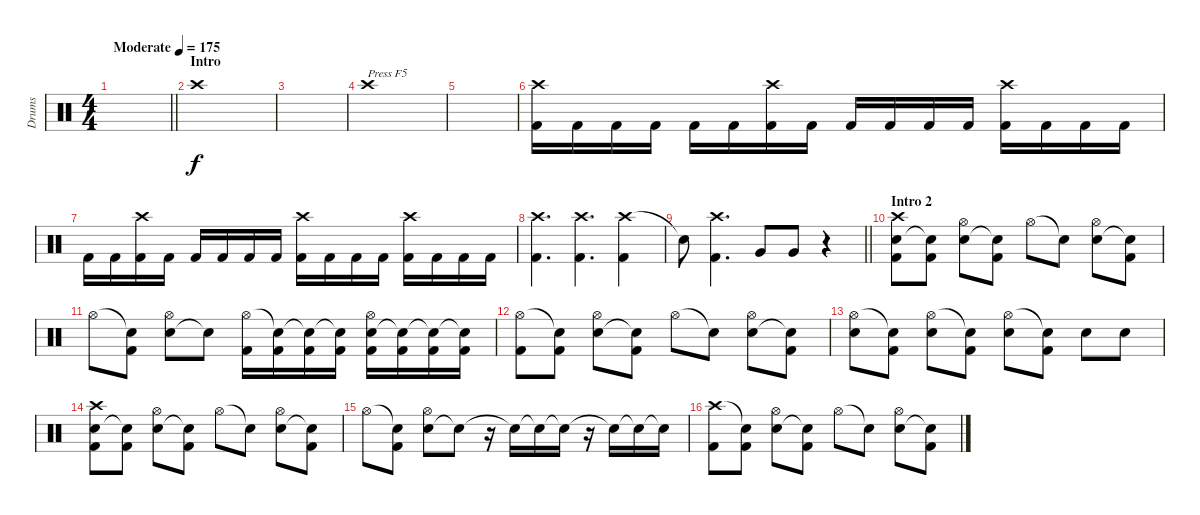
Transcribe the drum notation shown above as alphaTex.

\track ("Drums" "Drums") {instrument percussion}
\staff {score}
\articulation defaults
\ts (4 4)
\tempo (175 "Moderate")
\clef neutral
\barLineRight lightlight
\ks c
|
\section ("" "Intro")
"Crash high (hit)".1 |
|
"Crash high (hit)".1{txt "Press F5"} |
|
("Crash high (hit)" "Kick (hit) 2").16 "Kick (hit) 2".16 "Kick (hit) 2".16 "Kick (hit) 2".16 "Kick (hit) 2".16 "Kick (hit) 2".16 ("Crash high (hit)" "Kick (hit) 2").16 "Kick (hit) 2".16 "Kick (hit) 2".16 "Kick (hit) 2".16 "Kick (hit) 2".16 "Kick (hit) 2".16 ("Crash high (hit)" "Kick (hit) 2").16 "Kick (hit) 2".16 "Kick (hit) 2".16 "Kick (hit) 2".16 |
"Kick (hit) 2".16 "Kick (hit) 2".16 ("Crash high (hit)" "Kick (hit) 2").16 "Kick (hit) 2".16 "Kick (hit) 2".16 "Kick (hit) 2".16 "Kick (hit) 2".16 "Kick (hit) 2".16 ("Crash high (hit)" "Kick (hit) 2").16 "Kick (hit) 2".16 "Kick (hit) 2".16 "Kick (hit) 2".16 ("Crash high (hit)" "Kick (hit) 2").16 "Kick (hit) 2".16 "Kick (hit) 2".16 "Kick (hit) 2".16 |
("Crash high (hit)" "Kick (hit) 2").4{d} ("Crash high (hit)" "Kick (hit) 2").4{d} ("Crash high (hit)" "Kick (hit) 2").4 |
\barLineRight lightlight "Snare (hit)"{t}.8
("Crash high (hit)" "Kick (hit) 2").4{d} "Very Low Tom (hit)".8 "Very Low Tom (hit)".8 r.4 |
\section ("" "Intro 2")
("Snare (hit) 2" "Crash high (hit)" "Kick (hit) 2").8 ("Snare (hit)"{t} "Kick (hit) 2").8 ("Snare (hit) 2" "Hi-Hat (open)").8 ("Snare (hit)"{t} "Kick (hit) 2").8 "Hi-Hat (open)".8 "Snare (hit)"{t}.8 ("Snare (hit) 2" "Hi-Hat (open)").8 ("Snare (hit)"{t} "Kick (hit) 2").8 |
"Hi-Hat (open)".8 ("Snare (hit)"{t} "Kick (hit) 2").8 ("Snare (hit) 2" "Hi-Hat (open)").8 "Snare (hit)"{t}.8 ("Hi-Hat (open)" "Kick (hit) 2").16 ("Snare (hit)"{t} "Kick (hit) 2").16 ("Snare (hit)"{t} "Kick (hit) 2").16 ("Snare (hit)"{t} "Kick (hit) 2").16 ("Snare (hit) 2" "Hi-Hat (open)" "Kick (hit) 2").16 ("Snare (hit)"{t} "Kick (hit) 2").16 ("Snare (hit)"{t} "Kick (hit) 2").16 ("Snare (hit)"{t} "Kick (hit) 2").16 |
("Hi-Hat (open)" "Kick (hit) 2").8 ("Snare (hit)"{t} "Kick (hit) 2").8 ("Snare (hit) 2" "Hi-Hat (open)").8 ("Snare (hit)"{t} "Kick (hit) 2").8 "Hi-Hat (open)".8 "Snare (hit)"{t}.8 ("Snare (hit) 2" "Hi-Hat (open)").8 ("Snare (hit)"{t} "Kick (hit) 2").8 |
("Hi-Hat (open)" "Snare (hit) 2").8 ("Snare (hit)"{t} "Kick (hit) 2").8 ("Hi-Hat (open)" "Snare (hit) 2").8 ("Snare (hit)"{t} "Kick (hit) 2").8 ("Hi-Hat (open)" "Snare (hit) 2").8 ("Snare (hit)"{t} "Kick (hit) 2").8 "Snare (hit) 2".8 "Snare (hit) 2".8 |
("Snare (hit) 2" "Crash high (hit)" "Kick (hit) 2").8 ("Snare (hit)"{t} "Kick (hit) 2").8 ("Snare (hit) 2" "Hi-Hat (open)").8 ("Snare (hit)"{t} "Kick (hit) 2").8 "Hi-Hat (open)".8 "Snare (hit)"{t}.8 ("Snare (hit) 2" "Hi-Hat (open)").8 ("Snare (hit)"{t} "Kick (hit) 2").8 |
"Hi-Hat (open)".8 ("Snare (hit)"{t} "Kick (hit) 2").8 ("Snare (hit) 2" "Hi-Hat (open)").8 "Snare (hit)"{t}.8 r.16 "Snare (hit)"{t}.16 "Snare (hit)"{t}.16 "Snare (hit)"{t}.16 r.16 "Snare (hit)"{t}.16 "Snare (hit)"{t}.16 "Snare (hit)"{t}.16 |
("Crash high (hit)" "Kick (hit) 2").8 ("Snare (hit)"{t} "Kick (hit) 2").8 ("Snare (hit) 2" "Hi-Hat (open)").8 ("Snare (hit)"{t} "Kick (hit) 2").8 "Hi-Hat (open)".8 "Snare (hit)"{t}.8 ("Snare (hit) 2" "Hi-Hat (open)").8 ("Snare (hit)"{t} "Kick (hit) 2").8
